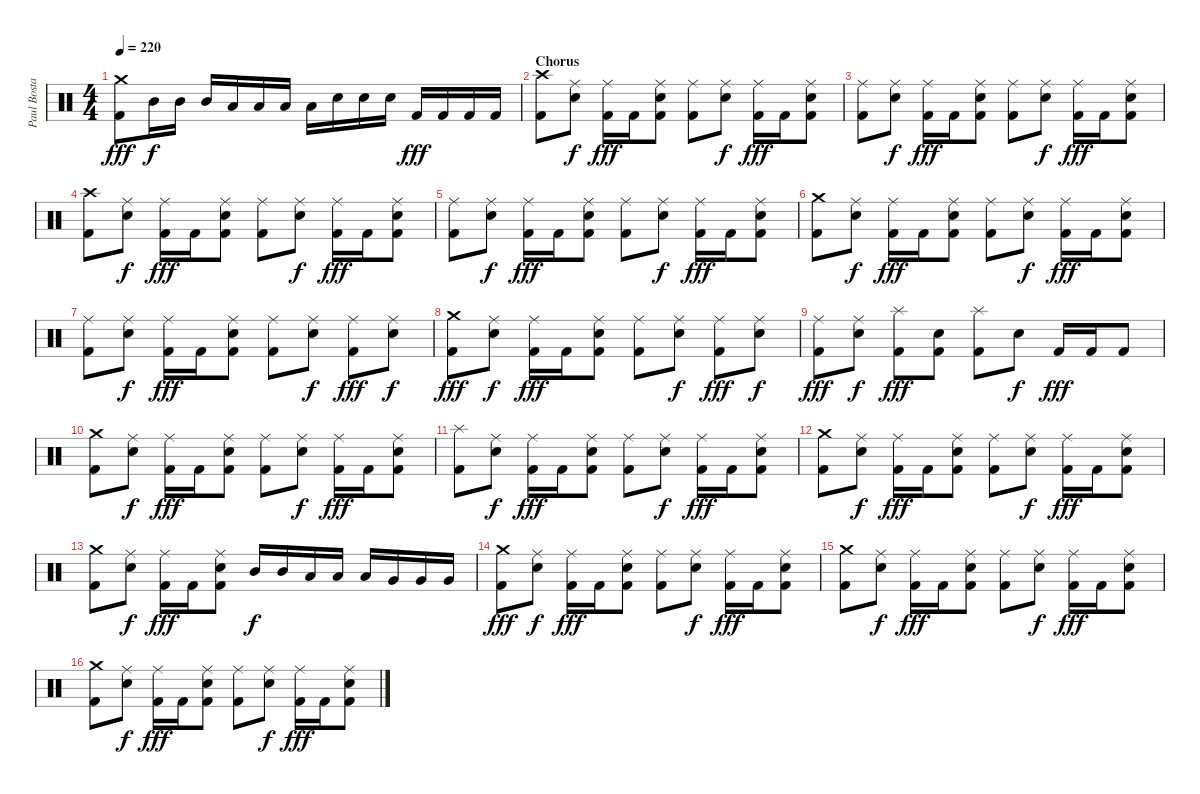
\track ("Paul Bostaph" "Paul Bosta") {instrument percussion}
\staff {score}
\articulation defaults
\ts (4 4)
\tempo 220
\clef neutral
\ks c
("Crash medium (hit)" "Kick (hit) 2").8{dy fff} "Mid Tom (hit)".16{dy f} "Mid Tom (hit)".16 "Mid Tom (hit)".16 "Low Tom (hit)".16 "Low Tom (hit)".16 "Low Tom (hit)".16 "Low Tom (hit)".16 "Snare (hit) 2".16 "Snare (hit) 2".16 "Snare (hit) 2".16 "Kick (hit) 2".16{dy fff} "Kick (hit) 2".16 "Kick (hit) 2".16 "Kick (hit) 2".16 |
\section ("" "Chorus")
("Crash high (hit)" "Kick (hit) 2").8 ("Ride (middle)" "Snare (hit) 2").8{dy f} ("Ride (middle)" "Kick (hit) 2").16{dy fff} "Kick (hit) 2".16 ("Ride (middle)" "Snare (hit) 2" "Kick (hit) 2").8 ("Ride (middle)" "Kick (hit) 2").8 ("Ride (middle)" "Snare (hit) 2").8{dy f} ("Ride (middle)" "Kick (hit) 2").16{dy fff} "Kick (hit) 2".16 ("Ride (middle)" "Snare (hit) 2" "Kick (hit) 2").8 |
("Ride (middle)" "Kick (hit) 2").8 ("Ride (middle)" "Snare (hit) 2").8{dy f} ("Ride (middle)" "Kick (hit) 2").16{dy fff} "Kick (hit) 2".16 ("Ride (middle)" "Snare (hit) 2" "Kick (hit) 2").8 ("Ride (middle)" "Kick (hit) 2").8 ("Ride (middle)" "Snare (hit) 2").8{dy f} ("Ride (middle)" "Kick (hit) 2").16{dy fff} "Kick (hit) 2".16 ("Ride (middle)" "Snare (hit) 2" "Kick (hit) 2").8 |
("Crash high (hit)" "Kick (hit) 2").8 ("Ride (middle)" "Snare (hit) 2").8{dy f} ("Ride (middle)" "Kick (hit) 2").16{dy fff} "Kick (hit) 2".16 ("Ride (middle)" "Snare (hit) 2" "Kick (hit) 2").8 ("Ride (middle)" "Kick (hit) 2").8 ("Ride (middle)" "Snare (hit) 2").8{dy f} ("Ride (middle)" "Kick (hit) 2").16{dy fff} "Kick (hit) 2".16 ("Ride (middle)" "Snare (hit) 2" "Kick (hit) 2").8 |
("Ride (middle)" "Kick (hit) 2").8 ("Ride (middle)" "Snare (hit) 2").8{dy f} ("Ride (middle)" "Kick (hit) 2").16{dy fff} "Kick (hit) 2".16 ("Ride (middle)" "Snare (hit) 2" "Kick (hit) 2").8 ("Ride (middle)" "Kick (hit) 2").8 ("Ride (middle)" "Snare (hit) 2").8{dy f} ("Ride (middle)" "Kick (hit) 2").16{dy fff} "Kick (hit) 2".16 ("Ride (middle)" "Snare (hit) 2" "Kick (hit) 2").8 |
("Crash medium (hit)" "Kick (hit) 2").8 ("Ride (middle)" "Snare (hit) 2").8{dy f} ("Ride (middle)" "Kick (hit) 2").16{dy fff} "Kick (hit) 2".16 ("Ride (middle)" "Snare (hit) 2" "Kick (hit) 2").8 ("Ride (middle)" "Kick (hit) 2").8 ("Ride (middle)" "Snare (hit) 2").8{dy f} ("Ride (middle)" "Kick (hit) 2").16{dy fff} "Kick (hit) 2".16 ("Ride (middle)" "Snare (hit) 2" "Kick (hit) 2").8 |
("Ride (middle)" "Kick (hit) 2").8 ("Ride (middle)" "Snare (hit) 2").8{dy f} ("Ride (middle)" "Kick (hit) 2").16{dy fff} "Kick (hit) 2".16 ("Ride (middle)" "Snare (hit) 2" "Kick (hit) 2").8 ("Ride (middle)" "Kick (hit) 2").8 ("Ride (middle)" "Snare (hit) 2").8{dy f} ("Ride (middle)" "Kick (hit) 2").8{dy fff} ("Ride (middle)" "Snare (hit) 2").8{dy f} |
("Crash medium (hit)" "Kick (hit) 2").8{dy fff} ("Ride (middle)" "Snare (hit) 2").8{dy f} ("Ride (middle)" "Kick (hit) 2").16{dy fff} "Kick (hit) 2".16 ("Ride (middle)" "Snare (hit) 2" "Kick (hit) 2").8 ("Ride (middle)" "Kick (hit) 2").8 ("Ride (middle)" "Snare (hit) 2").8{dy f} ("Ride (middle)" "Kick (hit) 2").8{dy fff} ("Ride (middle)" "Snare (hit) 2").8{dy f} |
("Ride (middle)" "Kick (hit) 2").8{dy fff} ("Ride (middle)" "Snare (hit) 2").8{dy f} ("Splash (hit)" "Kick (hit) 2").8{dy fff} ("Snare (hit) 2" "Kick (hit) 2").8 ("Splash (hit)" "Kick (hit) 2").8 "Snare (hit) 2".8{dy f} "Kick (hit) 2".16{dy fff} "Kick (hit) 2".16 "Kick (hit) 2".8 |
("Crash medium (hit)" "Kick (hit) 2").8 ("Ride (middle)" "Snare (hit) 2").8{dy f} ("Ride (middle)" "Kick (hit) 2").16{dy fff} "Kick (hit) 2".16 ("Ride (middle)" "Snare (hit) 2" "Kick (hit) 2").8 ("Ride (middle)" "Kick (hit) 2").8 ("Ride (middle)" "Snare (hit) 2").8{dy f} ("Ride (middle)" "Kick (hit) 2").16{dy fff} "Kick (hit) 2".16 ("Ride (middle)" "Snare (hit) 2" "Kick (hit) 2").8 |
("Splash (hit)" "Kick (hit) 2").8 ("Ride (middle)" "Snare (hit) 2").8{dy f} ("Ride (middle)" "Kick (hit) 2").16{dy fff} "Kick (hit) 2".16 ("Ride (middle)" "Snare (hit) 2" "Kick (hit) 2").8 ("Ride (middle)" "Kick (hit) 2").8 ("Ride (middle)" "Snare (hit) 2").8{dy f} ("Ride (middle)" "Kick (hit) 2").16{dy fff} "Kick (hit) 2".16 ("Ride (middle)" "Snare (hit) 2" "Kick (hit) 2").8 |
("Crash medium (hit)" "Kick (hit) 2").8 ("Ride (middle)" "Snare (hit) 2").8{dy f} ("Ride (middle)" "Kick (hit) 2").16{dy fff} "Kick (hit) 2".16 ("Ride (middle)" "Snare (hit) 2" "Kick (hit) 2").8 ("Ride (middle)" "Kick (hit) 2").8 ("Ride (middle)" "Snare (hit) 2").8{dy f} ("Ride (middle)" "Kick (hit) 2").16{dy fff} "Kick (hit) 2".16 ("Ride (middle)" "Snare (hit) 2" "Kick (hit) 2").8 |
("Crash medium (hit)" "Kick (hit) 2").8 ("Ride (middle)" "Snare (hit) 2").8{dy f} ("Ride (middle)" "Kick (hit) 2").16{dy fff} "Kick (hit) 2".16 ("Ride (middle)" "Snare (hit) 2" "Kick (hit) 2").8 "Mid Tom (hit)".16{dy f} "Mid Tom (hit)".16 "Low Tom (hit)".16 "Low Tom (hit)".16 "Low Tom (hit)".16 "Very Low Tom (hit)".16 "Very Low Tom (hit)".16 "Very Low Tom (hit)".16 |
("Crash medium (hit)" "Kick (hit) 2").8{dy fff} ("Ride (middle)" "Snare (hit) 2").8{dy f} ("Ride (middle)" "Kick (hit) 2").16{dy fff} "Kick (hit) 2".16 ("Ride (middle)" "Snare (hit) 2" "Kick (hit) 2").8 ("Ride (middle)" "Kick (hit) 2").8 ("Ride (middle)" "Snare (hit) 2").8{dy f} ("Ride (middle)" "Kick (hit) 2").16{dy fff} "Kick (hit) 2".16 ("Ride (middle)" "Snare (hit) 2" "Kick (hit) 2").8 |
("Crash medium (hit)" "Kick (hit) 2").8 ("Ride (middle)" "Snare (hit) 2").8{dy f} ("Ride (middle)" "Kick (hit) 2").16{dy fff} "Kick (hit) 2".16 ("Ride (middle)" "Snare (hit) 2" "Kick (hit) 2").8 ("Ride (middle)" "Kick (hit) 2").8 ("Ride (middle)" "Snare (hit) 2").8{dy f} ("Ride (middle)" "Kick (hit) 2").16{dy fff} "Kick (hit) 2".16 ("Ride (middle)" "Snare (hit) 2" "Kick (hit) 2").8 |
("Crash medium (hit)" "Kick (hit) 2").8 ("Ride (middle)" "Snare (hit) 2").8{dy f} ("Ride (middle)" "Kick (hit) 2").16{dy fff} "Kick (hit) 2".16 ("Ride (middle)" "Snare (hit) 2" "Kick (hit) 2").8 ("Ride (middle)" "Kick (hit) 2").8 ("Ride (middle)" "Snare (hit) 2").8{dy f} ("Ride (middle)" "Kick (hit) 2").16{dy fff} "Kick (hit) 2".16 ("Ride (middle)" "Snare (hit) 2" "Kick (hit) 2").8
